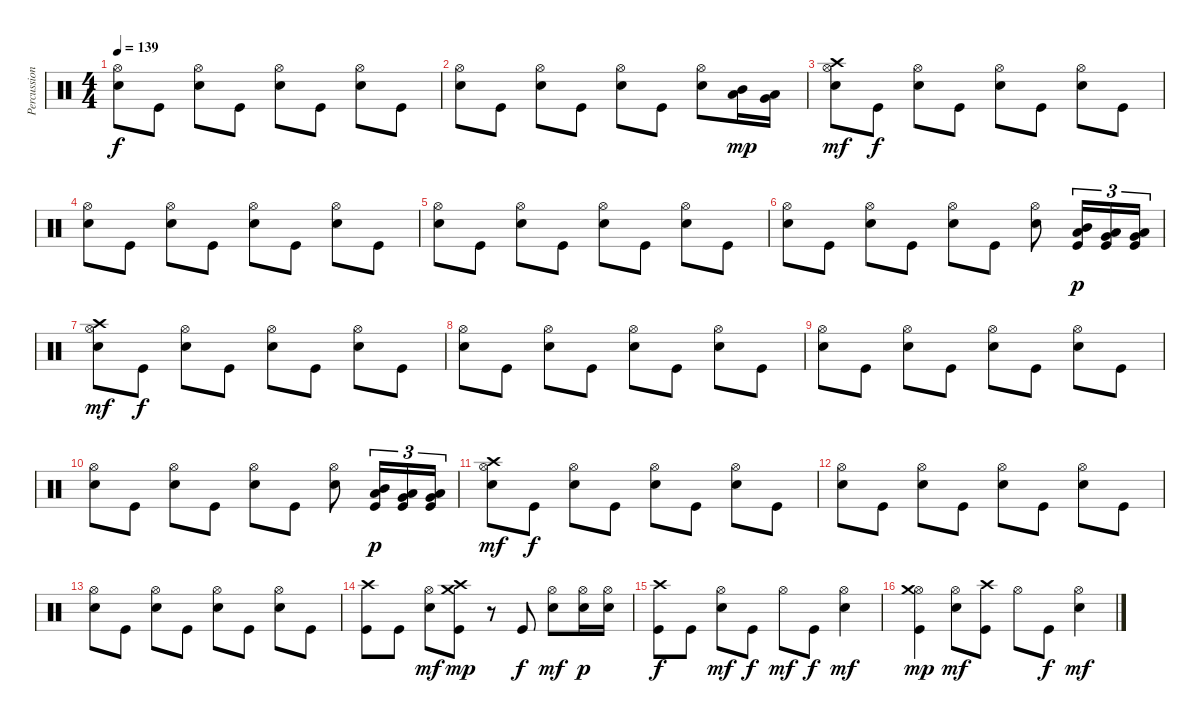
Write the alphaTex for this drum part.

\track ("Percussions" "Percussion") {instrument percussion}
\staff {score}
\articulation defaults
\ts (4 4)
\tempo 139
\clef neutral
\ks c
("Electric Snare (hit)" "Hi-Hat (open)").8{dy f} "Kick (hit)".8 ("Electric Snare (hit)" "Hi-Hat (open)").8 "Kick (hit)".8 ("Electric Snare (hit)" "Hi-Hat (open)").8 "Kick (hit)".8 ("Electric Snare (hit)" "Hi-Hat (open)").8 "Kick (hit)".8 |
("Electric Snare (hit)" "Hi-Hat (open)").8 "Kick (hit)".8 ("Electric Snare (hit)" "Hi-Hat (open)").8 "Kick (hit)".8 ("Electric Snare (hit)" "Hi-Hat (open)").8 "Kick (hit)".8 ("Electric Snare (hit)" "Hi-Hat (open)").8 ("Low Tom (hit)" "Mid Tom (hit)").16{dy mp} ("Very Low Tom (hit)" "Low Tom (hit)").16 |
("Electric Snare (hit)" "Hi-Hat (open)" "Crash high (hit)").8{dy mf} "Kick (hit)".8{dy f} ("Electric Snare (hit)" "Hi-Hat (open)").8 "Kick (hit)".8 ("Electric Snare (hit)" "Hi-Hat (open)").8 "Kick (hit)".8 ("Electric Snare (hit)" "Hi-Hat (open)").8 "Kick (hit)".8 |
("Electric Snare (hit)" "Hi-Hat (open)").8 "Kick (hit)".8 ("Electric Snare (hit)" "Hi-Hat (open)").8 "Kick (hit)".8 ("Electric Snare (hit)" "Hi-Hat (open)").8 "Kick (hit)".8 ("Electric Snare (hit)" "Hi-Hat (open)").8 "Kick (hit)".8 |
("Electric Snare (hit)" "Hi-Hat (open)").8 "Kick (hit)".8 ("Electric Snare (hit)" "Hi-Hat (open)").8 "Kick (hit)".8 ("Electric Snare (hit)" "Hi-Hat (open)").8 "Kick (hit)".8 ("Electric Snare (hit)" "Hi-Hat (open)").8 "Kick (hit)".8 |
("Electric Snare (hit)" "Hi-Hat (open)").8 "Kick (hit)".8 ("Electric Snare (hit)" "Hi-Hat (open)").8 "Kick (hit)".8 ("Electric Snare (hit)" "Hi-Hat (open)").8 "Kick (hit)".8 ("Electric Snare (hit)" "Hi-Hat (open)").8 ("Kick (hit)" "Low Tom (hit)" "Mid Tom (hit)").16{tu (3 2) dy p} ("Kick (hit)" "Very Low Tom (hit)" "Low Tom (hit)").16{tu (3 2)} ("Kick (hit)" "Low Floor Tom (hit)" "Very Low Tom (hit)").16{tu (3 2)} |
("Electric Snare (hit)" "Hi-Hat (open)" "Crash high (hit)").8{dy mf} "Kick (hit)".8{dy f} ("Electric Snare (hit)" "Hi-Hat (open)").8 "Kick (hit)".8 ("Electric Snare (hit)" "Hi-Hat (open)").8 "Kick (hit)".8 ("Electric Snare (hit)" "Hi-Hat (open)").8 "Kick (hit)".8 |
("Electric Snare (hit)" "Hi-Hat (open)").8 "Kick (hit)".8 ("Electric Snare (hit)" "Hi-Hat (open)").8 "Kick (hit)".8 ("Electric Snare (hit)" "Hi-Hat (open)").8 "Kick (hit)".8 ("Electric Snare (hit)" "Hi-Hat (open)").8 "Kick (hit)".8 |
("Electric Snare (hit)" "Hi-Hat (open)").8 "Kick (hit)".8 ("Electric Snare (hit)" "Hi-Hat (open)").8 "Kick (hit)".8 ("Electric Snare (hit)" "Hi-Hat (open)").8 "Kick (hit)".8 ("Electric Snare (hit)" "Hi-Hat (open)").8 "Kick (hit)".8 |
("Electric Snare (hit)" "Hi-Hat (open)").8 "Kick (hit)".8 ("Electric Snare (hit)" "Hi-Hat (open)").8 "Kick (hit)".8 ("Electric Snare (hit)" "Hi-Hat (open)").8 "Kick (hit)".8 ("Electric Snare (hit)" "Hi-Hat (open)").8 ("Kick (hit)" "Low Tom (hit)" "Mid Tom (hit)").16{tu (3 2) dy p} ("Kick (hit)" "Very Low Tom (hit)" "Low Tom (hit)").16{tu (3 2)} ("Kick (hit)" "Low Floor Tom (hit)" "Very Low Tom (hit)").16{tu (3 2)} |
("Electric Snare (hit)" "Hi-Hat (open)" "Crash high (hit)").8{dy mf} "Kick (hit)".8{dy f} ("Electric Snare (hit)" "Hi-Hat (open)").8 "Kick (hit)".8 ("Electric Snare (hit)" "Hi-Hat (open)").8 "Kick (hit)".8 ("Electric Snare (hit)" "Hi-Hat (open)").8 "Kick (hit)".8 |
("Electric Snare (hit)" "Hi-Hat (open)").8 "Kick (hit)".8 ("Electric Snare (hit)" "Hi-Hat (open)").8 "Kick (hit)".8 ("Electric Snare (hit)" "Hi-Hat (open)").8 "Kick (hit)".8 ("Electric Snare (hit)" "Hi-Hat (open)").8 "Kick (hit)".8 |
("Electric Snare (hit)" "Hi-Hat (open)").8 "Kick (hit)".8 ("Electric Snare (hit)" "Hi-Hat (open)").8 "Kick (hit)".8 ("Electric Snare (hit)" "Hi-Hat (open)").8 "Kick (hit)".8 ("Electric Snare (hit)" "Hi-Hat (open)").8 "Kick (hit)".8 |
("Kick (hit)" "Crash high (hit)").8 "Kick (hit)".8 ("Electric Snare (hit)" "Hi-Hat (open)").8{dy mf} ("Kick (hit)" "Crash high (hit)" "Crash medium (hit)").8{dy mp} r.8 "Kick (hit)".8{dy f} ("Electric Snare (hit)" "Hi-Hat (open)").8{dy mf} ("Electric Snare (hit)" "Hi-Hat (open)").16{dy p} ("Electric Snare (hit)" "Hi-Hat (open)").16 |
("Kick (hit)" "Crash high (hit)").8{dy f} "Kick (hit)".8 ("Electric Snare (hit)" "Hi-Hat (open)").8{dy mf} "Kick (hit)".8{dy f} "Hi-Hat (open)".8{dy mf} "Kick (hit)".8{dy f} ("Electric Snare (hit)" "Hi-Hat (open)").4{dy mf} |
("Kick (hit)" "Hi-Hat (open)" "Crash medium (hit)").4{dy mp} ("Electric Snare (hit)" "Hi-Hat (open)").8{dy mf} ("Kick (hit)" "Crash high (hit)").8 "Hi-Hat (open)".8 "Kick (hit)".8{dy f} ("Electric Snare (hit)" "Hi-Hat (open)").4{dy mf}
